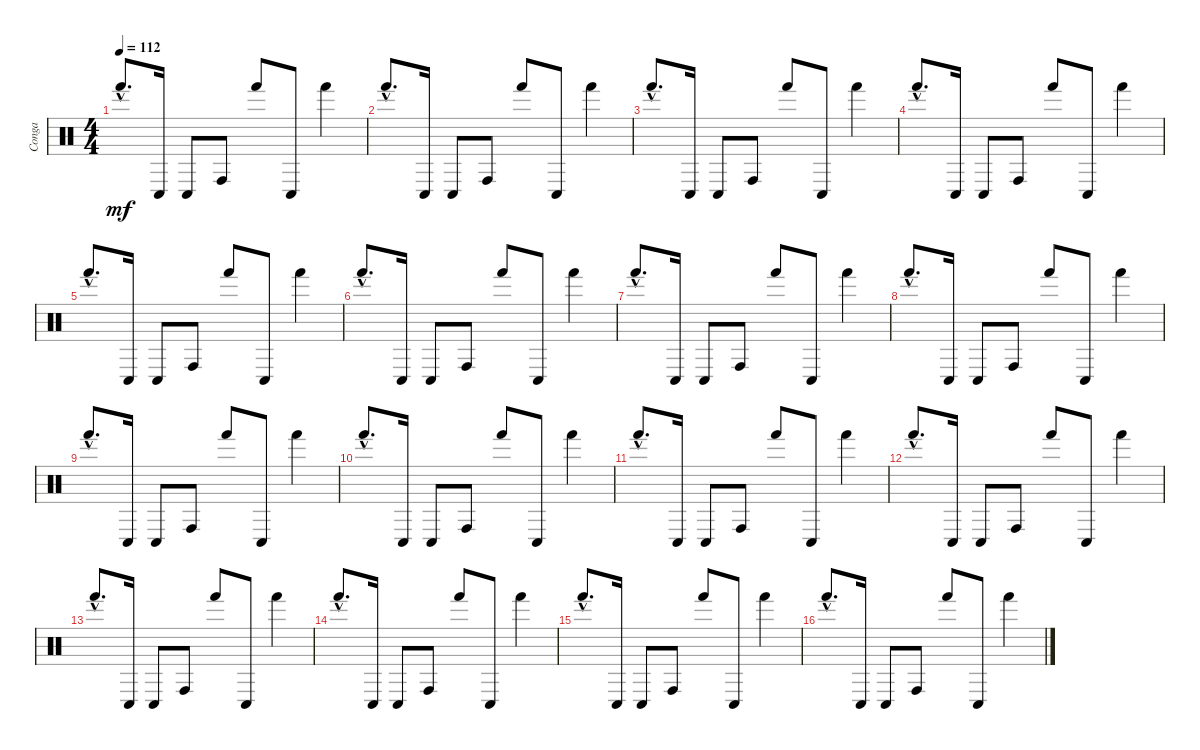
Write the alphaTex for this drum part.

\track ("Conga" "Conga") {instrument percussion}
\staff {score}
\articulation defaults
\ts (4 4)
\tempo 112
\clef neutral
\ks c "Hand (hit)"{hac}.8{d dy mf} "Conga low (hit)".16 "Conga low (hit)".8 "Conga high (hit)".8 "Hand (hit)".8 "Conga low (hit)".8 "Hand (hit)".4
|
"Hand (hit)"{hac}.8{d} "Conga low (hit)".16 "Conga low (hit)".8 "Conga high (hit)".8 "Hand (hit)".8 "Conga low (hit)".8 "Hand (hit)".4 |
"Hand (hit)"{hac}.8{d} "Conga low (hit)".16 "Conga low (hit)".8 "Conga high (hit)".8 "Hand (hit)".8 "Conga low (hit)".8 "Hand (hit)".4 |
"Hand (hit)"{hac}.8{d} "Conga low (hit)".16 "Conga low (hit)".8 "Conga high (hit)".8 "Hand (hit)".8 "Conga low (hit)".8 "Hand (hit)".4 |
"Hand (hit)"{hac}.8{d} "Conga low (hit)".16 "Conga low (hit)".8 "Conga high (hit)".8 "Hand (hit)".8 "Conga low (hit)".8 "Hand (hit)".4 |
"Hand (hit)"{hac}.8{d} "Conga low (hit)".16 "Conga low (hit)".8 "Conga high (hit)".8 "Hand (hit)".8 "Conga low (hit)".8 "Hand (hit)".4 |
"Hand (hit)"{hac}.8{d} "Conga low (hit)".16 "Conga low (hit)".8 "Conga high (hit)".8 "Hand (hit)".8 "Conga low (hit)".8 "Hand (hit)".4 |
"Hand (hit)"{hac}.8{d} "Conga low (hit)".16 "Conga low (hit)".8 "Conga high (hit)".8 "Hand (hit)".8 "Conga low (hit)".8 "Hand (hit)".4 |
"Hand (hit)"{hac}.8{d} "Conga low (hit)".16 "Conga low (hit)".8 "Conga high (hit)".8 "Hand (hit)".8 "Conga low (hit)".8 "Hand (hit)".4 |
"Hand (hit)"{hac}.8{d} "Conga low (hit)".16 "Conga low (hit)".8 "Conga high (hit)".8 "Hand (hit)".8 "Conga low (hit)".8 "Hand (hit)".4 |
"Hand (hit)"{hac}.8{d} "Conga low (hit)".16 "Conga low (hit)".8 "Conga high (hit)".8 "Hand (hit)".8 "Conga low (hit)".8 "Hand (hit)".4 |
"Hand (hit)"{hac}.8{d} "Conga low (hit)".16 "Conga low (hit)".8 "Conga high (hit)".8 "Hand (hit)".8 "Conga low (hit)".8 "Hand (hit)".4 |
"Hand (hit)"{hac}.8{d} "Conga low (hit)".16 "Conga low (hit)".8 "Conga high (hit)".8 "Hand (hit)".8 "Conga low (hit)".8 "Hand (hit)".4 |
"Hand (hit)"{hac}.8{d} "Conga low (hit)".16 "Conga low (hit)".8 "Conga high (hit)".8 "Hand (hit)".8 "Conga low (hit)".8 "Hand (hit)".4 |
"Hand (hit)"{hac}.8{d} "Conga low (hit)".16 "Conga low (hit)".8 "Conga high (hit)".8 "Hand (hit)".8 "Conga low (hit)".8 "Hand (hit)".4 |
"Hand (hit)"{hac}.8{d} "Conga low (hit)".16 "Conga low (hit)".8 "Conga high (hit)".8 "Hand (hit)".8 "Conga low (hit)".8 "Hand (hit)".4
